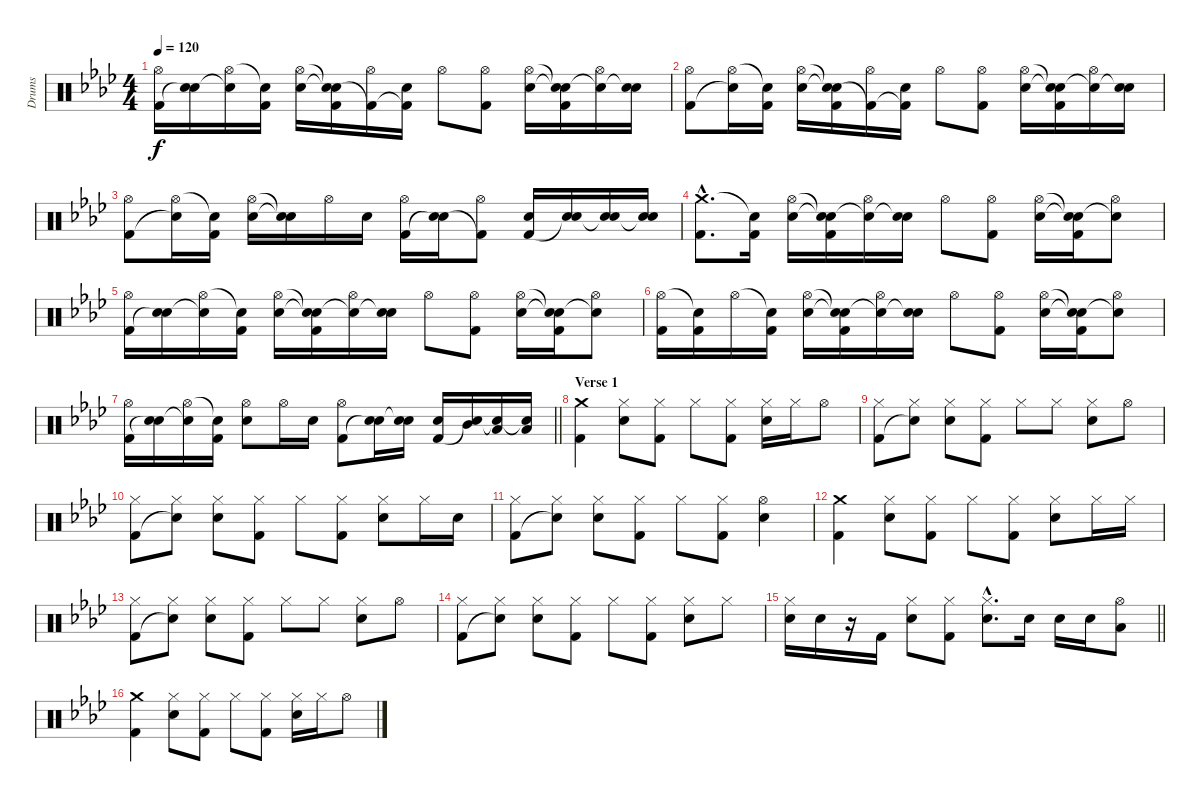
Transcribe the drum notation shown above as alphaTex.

\track ("Drums" "Drums") {instrument percussion}
\staff {score}
\articulation defaults
\ts (4 4)
\tempo 120
\clef neutral
\ks fminor
("Hi-Hat (open)" "Kick (hit) 2").16{dy f} ("Electric Snare (hit)" "Snare (hit)"{t}).16 ("Hi-Hat (open)" "Snare (hit)"{t}).16 ("Snare (hit)"{t} "Kick (hit) 2").16 ("Hi-Hat (open)" "Electric Snare (hit)").16 ("Snare (hit)"{t} "Snare (hit)"{t} "Kick (hit) 2").16 ("Hi-Hat (open)" "Kick (hit) 2"{t}).16 ("Electric Snare (hit)" "Kick (hit) 2"{t}).16 "Hi-Hat (open)".8 ("Hi-Hat (open)" "Kick (hit) 2").8 ("Hi-Hat (open)" "Electric Snare (hit)").16 ("Snare (hit)"{t} "Snare (hit)"{t} "Kick (hit) 2").16 ("Hi-Hat (open)" "Snare (hit)"{t}).16 ("Electric Snare (hit)" "Snare (hit)"{t}).16 |
("Hi-Hat (open)" "Kick (hit) 2").8 ("Hi-Hat (open)" "Snare (hit)"{t}).16 ("Snare (hit)"{t} "Kick (hit) 2").16 ("Hi-Hat (open)" "Electric Snare (hit)").16 ("Snare (hit)"{t} "Snare (hit)"{t} "Kick (hit) 2").16 ("Hi-Hat (open)" "Kick (hit) 2"{t}).16 ("Electric Snare (hit)" "Kick (hit) 2"{t}).16 "Hi-Hat (open)".8 ("Hi-Hat (open)" "Kick (hit) 2").8 ("Hi-Hat (open)" "Electric Snare (hit)").16 ("Snare (hit)"{t} "Snare (hit)"{t} "Kick (hit) 2").16 ("Hi-Hat (open)" "Snare (hit)"{t}).16 ("Electric Snare (hit)" "Snare (hit)"{t}).16 |
("Hi-Hat (open)" "Kick (hit) 2").8 ("Hi-Hat (open)" "Snare (hit)"{t}).16 ("Snare (hit)"{t} "Kick (hit) 2").16 ("Hi-Hat (open)" "Electric Snare (hit)").16 ("Snare (hit)"{t} "Snare (hit)"{t}).16 "Hi-Hat (open)".16 "Electric Snare (hit)".16 ("Hi-Hat (open)" "Kick (hit) 2").16 ("Electric Snare (hit)" "Snare (hit)"{t}).16 ("Hi-Hat (open)" "Kick (hit) 2"{t}).8 ("Electric Snare (hit)" "Kick (hit) 2").16 ("Electric Snare (hit)" "Snare (hit)"{t}).16 ("Electric Snare (hit)" "Snare (hit)"{t}).16 ("Electric Snare (hit)" "Snare (hit)"{t}).16 |
("Crash medium (hit)"{hac} "Kick (hit) 2"{hac}).8{d} ("Snare (hit)"{t} "Kick (hit) 2").16 ("Hi-Hat (open)" "Electric Snare (hit)").16 ("Snare (hit)"{t} "Snare (hit)"{t} "Kick (hit) 2").16 ("Hi-Hat (open)" "Snare (hit)"{t}).16 ("Electric Snare (hit)" "Snare (hit)"{t}).16 "Hi-Hat (open)".8 ("Hi-Hat (open)" "Kick (hit) 2").8 ("Hi-Hat (open)" "Electric Snare (hit)").16 ("Snare (hit)"{t} "Snare (hit)"{t} "Kick (hit) 2").16 ("Hi-Hat (open)" "Snare (hit)"{t}).8 |
("Hi-Hat (open)" "Kick (hit) 2").16 ("Electric Snare (hit)" "Snare (hit)"{t}).16 ("Hi-Hat (open)" "Snare (hit)"{t}).16 ("Snare (hit)"{t} "Kick (hit) 2").16 ("Hi-Hat (open)" "Electric Snare (hit)").16 ("Snare (hit)"{t} "Snare (hit)"{t} "Kick (hit) 2").16 ("Hi-Hat (open)" "Snare (hit)"{t}).16 ("Electric Snare (hit)" "Snare (hit)"{t}).16 "Hi-Hat (open)".8 ("Hi-Hat (open)" "Kick (hit) 2").8 ("Hi-Hat (open)" "Electric Snare (hit)").16 ("Snare (hit)"{t} "Snare (hit)"{t} "Kick (hit) 2").16 ("Hi-Hat (open)" "Snare (hit)"{t}).8 |
("Hi-Hat (open)" "Kick (hit) 2").16 ("Snare (hit)"{t} "Kick (hit) 2").16 "Hi-Hat (open)".16 ("Snare (hit)"{t} "Kick (hit) 2").16 ("Hi-Hat (open)" "Electric Snare (hit)").16 ("Snare (hit)"{t} "Snare (hit)"{t} "Kick (hit) 2").16 ("Hi-Hat (open)" "Snare (hit)"{t}).16 ("Electric Snare (hit)" "Snare (hit)"{t}).16 "Hi-Hat (open)".8 ("Hi-Hat (open)" "Kick (hit) 2").8 ("Hi-Hat (open)" "Electric Snare (hit)").16 ("Snare (hit)"{t} "Snare (hit)"{t} "Kick (hit) 2").16 ("Hi-Hat (open)" "Snare (hit)"{t}).8 |
\barLineRight lightlight
("Hi-Hat (open)" "Kick (hit) 2").16 ("Electric Snare (hit)" "Snare (hit)"{t}).16 ("Hi-Hat (open)" "Snare (hit)"{t}).16 ("Snare (hit)"{t} "Kick (hit) 2").16 ("Hi-Hat (open)" "Electric Snare (hit)").8 "Hi-Hat (open)".16 "Electric Snare (hit)".16 ("Hi-Hat (open)" "Kick (hit) 2").8 ("Electric Snare (hit)" "Snare (hit)"{t}).16 ("Electric Snare (hit)" "Snare (hit)"{t}).16 ("Electric Snare (hit)" "Kick (hit) 2").16 ("Mid Tom (hit)" "Snare (hit)"{t}).16 ("Low Tom (hit)" "Snare (hit)"{t}).16 ("Low Floor Tom (hit)" "Snare (hit)"{t}).16 |
\section ("" "Verse 1")
("Crash medium (hit)" "Kick (hit) 2").4 ("Hi-Hat (closed)" "Electric Snare (hit)").8 ("Hi-Hat (closed)" "Kick (hit) 2").8 "Hi-Hat (closed)".8 ("Hi-Hat (closed)" "Kick (hit) 2").8 ("Hi-Hat (closed)" "Electric Snare (hit)").16 "Hi-Hat (closed)".16 "Hi-Hat (open)".8 |
("Hi-Hat (closed)" "Kick (hit) 2").8 ("Hi-Hat (closed)" "Snare (hit)"{t}).8 ("Hi-Hat (closed)" "Electric Snare (hit)").8 ("Hi-Hat (closed)" "Kick (hit) 2").8 "Hi-Hat (closed)".8 "Hi-Hat (closed)".8 ("Hi-Hat (closed)" "Electric Snare (hit)").8 "Hi-Hat (open)".8 |
("Hi-Hat (closed)" "Kick (hit) 2").8 ("Hi-Hat (closed)" "Snare (hit)"{t}).8 ("Hi-Hat (closed)" "Electric Snare (hit)").8 ("Hi-Hat (closed)" "Kick (hit) 2").8 "Hi-Hat (closed)".8 ("Hi-Hat (closed)" "Kick (hit) 2").8 ("Hi-Hat (closed)" "Electric Snare (hit)").8 "Hi-Hat (closed)".16 "Electric Snare (hit)".16 |
("Hi-Hat (closed)" "Kick (hit) 2").8 ("Hi-Hat (closed)" "Snare (hit)"{t}).8 ("Hi-Hat (closed)" "Electric Snare (hit)").8 ("Hi-Hat (closed)" "Kick (hit) 2").8 "Hi-Hat (closed)".8 ("Hi-Hat (closed)" "Kick (hit) 2").8 ("Hi-Hat (open)" "Electric Snare (hit)").4 |
("Crash medium (hit)" "Kick (hit) 2").4 ("Hi-Hat (closed)" "Electric Snare (hit)").8 ("Hi-Hat (closed)" "Kick (hit) 2").8 "Hi-Hat (closed)".8 ("Hi-Hat (closed)" "Kick (hit) 2").8 ("Hi-Hat (closed)" "Electric Snare (hit)").8 "Hi-Hat (closed)".16 "Hi-Hat (closed)".16 |
("Hi-Hat (closed)" "Kick (hit) 2").8 ("Hi-Hat (closed)" "Snare (hit)"{t}).8 ("Hi-Hat (closed)" "Electric Snare (hit)").8 ("Hi-Hat (closed)" "Kick (hit) 2").8 "Hi-Hat (closed)".8 "Hi-Hat (closed)".8 ("Hi-Hat (closed)" "Electric Snare (hit)").8 "Hi-Hat (open)".8 |
("Hi-Hat (closed)" "Kick (hit) 2").8 ("Hi-Hat (closed)" "Snare (hit)"{t}).8 ("Hi-Hat (closed)" "Electric Snare (hit)").8 ("Hi-Hat (closed)" "Kick (hit) 2").8 "Hi-Hat (closed)".8 ("Hi-Hat (closed)" "Kick (hit) 2").8 ("Hi-Hat (closed)" "Electric Snare (hit)").8 "Hi-Hat (closed)".8 |
\barLineRight lightlight
("Hi-Hat (closed)" "Electric Snare (hit)").16 "Electric Snare (hit)".16 r.16 "Kick (hit) 2".16 ("Hi-Hat (closed)" "Electric Snare (hit)").8 ("Hi-Hat (closed)" "Kick (hit) 2").8 ("Hi-Hat (closed)"{hac} "Electric Snare (hit)"{hac}).8{d} "Electric Snare (hit)".16 "Electric Snare (hit)".16 "Electric Snare (hit)".16 ("Hi-Hat (open)" "Low Floor Tom (hit)").8 |
("Crash medium (hit)" "Kick (hit) 2").4 ("Hi-Hat (closed)" "Electric Snare (hit)").8 ("Hi-Hat (closed)" "Kick (hit) 2").8 "Hi-Hat (closed)".8 ("Hi-Hat (closed)" "Kick (hit) 2").8 ("Hi-Hat (closed)" "Electric Snare (hit)").16 "Hi-Hat (closed)".16 "Hi-Hat (open)".8
